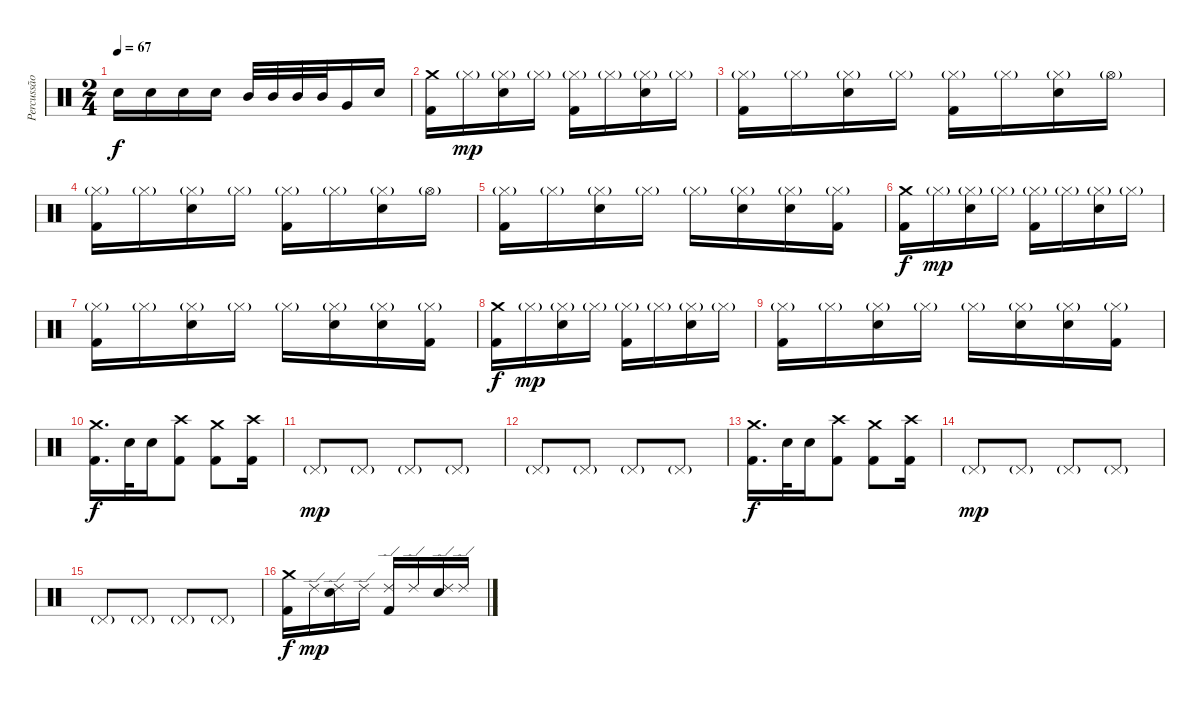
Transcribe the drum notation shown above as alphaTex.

\track ("Percussão" "Percussão") {instrument percussion}
\staff {score}
\articulation defaults
\ts (2 4)
\tempo 67
\clef neutral
\ks c "Snare (hit) 2".16{dy f} "Snare (hit) 2".16 "Snare (hit) 2".16 "Snare (hit) 2".16 "Mid Tom (hit)".32 "Mid Tom (hit)".32 "Mid Tom (hit)".32 "Mid Tom (hit)".32 "Very Low Tom (hit)".16 "Snare (hit) 2".16
|
("Crash medium (hit)" "Kick (hit) 2").16 "Hi-Hat (closed)"{g}.16{dy mp} ("Hi-Hat (closed)"{g} "Snare (hit) 2").16 "Hi-Hat (closed)"{g}.16 ("Hi-Hat (closed)"{g} "Kick (hit) 2").16 "Hi-Hat (closed)"{g}.16 ("Hi-Hat (closed)"{g} "Snare (hit) 2").16 "Hi-Hat (closed)"{g}.16 |
("Hi-Hat (closed)"{g} "Kick (hit) 2").16 "Hi-Hat (closed)"{g}.16 ("Hi-Hat (closed)"{g} "Snare (hit) 2").16 "Hi-Hat (closed)"{g}.16 ("Hi-Hat (closed)"{g} "Kick (hit) 2").16 "Hi-Hat (closed)"{g}.16 ("Hi-Hat (closed)"{g} "Snare (hit) 2").16 "Hi-Hat (open)"{g}.16 |
("Hi-Hat (closed)"{g} "Kick (hit) 2").16 "Hi-Hat (closed)"{g}.16 ("Hi-Hat (closed)"{g} "Snare (hit) 2").16 "Hi-Hat (closed)"{g}.16 ("Hi-Hat (closed)"{g} "Kick (hit) 2").16 "Hi-Hat (closed)"{g}.16 ("Hi-Hat (closed)"{g} "Snare (hit) 2").16 "Hi-Hat (open)"{g}.16 |
("Hi-Hat (closed)"{g} "Kick (hit) 2").16 "Hi-Hat (closed)"{g}.16 ("Hi-Hat (closed)"{g} "Snare (hit) 2").16 "Hi-Hat (closed)"{g}.16 "Hi-Hat (closed)"{g}.16 ("Hi-Hat (closed)"{g} "Snare (hit) 2").16 ("Hi-Hat (closed)"{g} "Snare (hit) 2").16 ("Hi-Hat (closed)"{g} "Kick (hit) 2").16 |
("Crash medium (hit)" "Kick (hit) 2").16{dy f} "Hi-Hat (closed)"{g}.16{dy mp} ("Hi-Hat (closed)"{g} "Snare (hit) 2").16 "Hi-Hat (closed)"{g}.16 ("Hi-Hat (closed)"{g} "Kick (hit) 2").16 "Hi-Hat (closed)"{g}.16 ("Hi-Hat (closed)"{g} "Snare (hit) 2").16 "Hi-Hat (closed)"{g}.16 |
("Hi-Hat (closed)"{g} "Kick (hit) 2").16 "Hi-Hat (closed)"{g}.16 ("Hi-Hat (closed)"{g} "Snare (hit) 2").16 "Hi-Hat (closed)"{g}.16 "Hi-Hat (closed)"{g}.16 ("Hi-Hat (closed)"{g} "Snare (hit) 2").16 ("Hi-Hat (closed)"{g} "Snare (hit) 2").16 ("Hi-Hat (closed)"{g} "Kick (hit) 2").16 |
("Crash medium (hit)" "Kick (hit) 2").16{dy f} "Hi-Hat (closed)"{g}.16{dy mp} ("Hi-Hat (closed)"{g} "Snare (hit) 2").16 "Hi-Hat (closed)"{g}.16 ("Hi-Hat (closed)"{g} "Kick (hit) 2").16 "Hi-Hat (closed)"{g}.16 ("Hi-Hat (closed)"{g} "Snare (hit) 2").16 "Hi-Hat (closed)"{g}.16 |
("Hi-Hat (closed)"{g} "Kick (hit) 2").16 "Hi-Hat (closed)"{g}.16 ("Hi-Hat (closed)"{g} "Snare (hit) 2").16 "Hi-Hat (closed)"{g}.16 "Hi-Hat (closed)"{g}.16 ("Hi-Hat (closed)"{g} "Snare (hit) 2").16 ("Hi-Hat (closed)"{g} "Snare (hit) 2").16 ("Hi-Hat (closed)"{g} "Kick (hit) 2").16 |
("Crash medium (hit)" "Kick (hit) 2").16{d dy f} "Snare (hit) 2".32 "Snare (hit) 2".16 ("Crash high (hit)" "Kick (hit) 2").8 ("Crash medium (hit)" "Kick (hit) 2").8 ("Crash high (hit)" "Kick (hit) 2").16 |
"Pedal Hi-Hat (hit)"{g}.8{dy mp} "Pedal Hi-Hat (hit)"{g}.8 "Pedal Hi-Hat (hit)"{g}.8 "Pedal Hi-Hat (hit)"{g}.8 |
"Pedal Hi-Hat (hit)"{g}.8 "Pedal Hi-Hat (hit)"{g}.8 "Pedal Hi-Hat (hit)"{g}.8 "Pedal Hi-Hat (hit)"{g}.8 |
("Crash medium (hit)" "Kick (hit) 2").16{d dy f} "Snare (hit) 2".32 "Snare (hit) 2".16 ("Crash high (hit)" "Kick (hit) 2").8 ("Crash medium (hit)" "Kick (hit) 2").8 ("Crash high (hit)" "Kick (hit) 2").16 |
"Pedal Hi-Hat (hit)"{g}.8{dy mp} "Pedal Hi-Hat (hit)"{g}.8 "Pedal Hi-Hat (hit)"{g}.8 "Pedal Hi-Hat (hit)"{g}.8 |
"Pedal Hi-Hat (hit)"{g}.8 "Pedal Hi-Hat (hit)"{g}.8 "Pedal Hi-Hat (hit)"{g}.8 "Pedal Hi-Hat (hit)"{g}.8 |
("Crash medium (hit)" "Kick (hit) 2").16{dy f} "Ride (edge) 2".16{dy mp} ("Ride (edge) 2" "Snare (hit) 2").16 "Ride (edge) 2".16 ("Ride (edge) 2" "Kick (hit) 2").16 "Ride (edge) 2".16 ("Ride (edge) 2" "Snare (hit) 2").16 "Ride (edge) 2".16
